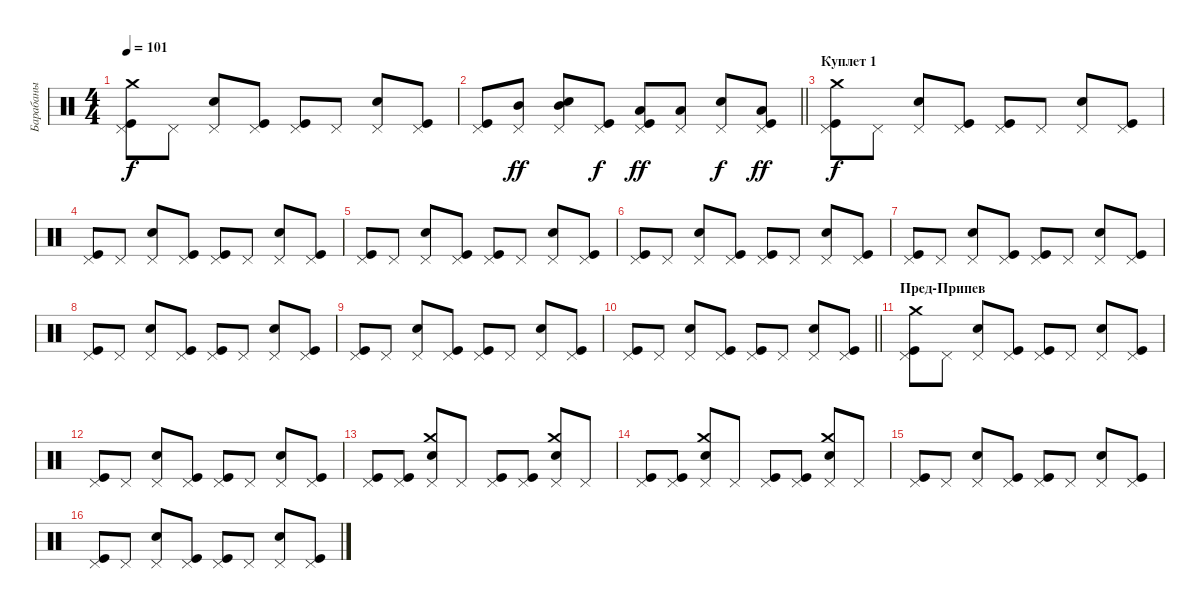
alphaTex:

\track ("Барабаны" "Барабаны") {instrument percussion}
\staff {score}
\articulation defaults
\ts (4 4)
\tempo 101
\clef neutral
\ks c
("Kick (hit)" "Pedal Hi-Hat (hit)" "Crash medium (hit)").8{dy f} "Pedal Hi-Hat (hit)".8 ("Snare (hit) 2" "Pedal Hi-Hat (hit)").8 ("Kick (hit)" "Pedal Hi-Hat (hit)").8 ("Kick (hit)" "Pedal Hi-Hat (hit)").8 "Pedal Hi-Hat (hit)".8 ("Snare (hit) 2" "Pedal Hi-Hat (hit)").8 ("Kick (hit)" "Pedal Hi-Hat (hit)").8 |
\barLineRight lightlight
("Kick (hit)" "Pedal Hi-Hat (hit)").8 ("Pedal Hi-Hat (hit)" "Mid Tom (hit)").8{dy ff} ("Snare (hit) 2" "Pedal Hi-Hat (hit)" "Mid Tom (hit)").8 ("Kick (hit)" "Pedal Hi-Hat (hit)").8{dy f} ("Kick (hit)" "Pedal Hi-Hat (hit)" "Low Tom (hit)").8{dy ff} ("Pedal Hi-Hat (hit)" "Low Tom (hit)").8 ("Snare (hit) 2" "Pedal Hi-Hat (hit)").8{dy f} ("Kick (hit)" "Pedal Hi-Hat (hit)" "Low Tom (hit)").8{dy ff} |
\section ("" "Куплет 1")
("Kick (hit)" "Pedal Hi-Hat (hit)" "Crash medium (hit)").8{dy f} "Pedal Hi-Hat (hit)".8 ("Snare (hit) 2" "Pedal Hi-Hat (hit)").8 ("Kick (hit)" "Pedal Hi-Hat (hit)").8 ("Kick (hit)" "Pedal Hi-Hat (hit)").8 "Pedal Hi-Hat (hit)".8 ("Snare (hit) 2" "Pedal Hi-Hat (hit)").8 ("Kick (hit)" "Pedal Hi-Hat (hit)").8 |
("Kick (hit)" "Pedal Hi-Hat (hit)").8 "Pedal Hi-Hat (hit)".8 ("Snare (hit) 2" "Pedal Hi-Hat (hit)").8 ("Kick (hit)" "Pedal Hi-Hat (hit)").8 ("Kick (hit)" "Pedal Hi-Hat (hit)").8 "Pedal Hi-Hat (hit)".8 ("Snare (hit) 2" "Pedal Hi-Hat (hit)").8 ("Kick (hit)" "Pedal Hi-Hat (hit)").8 |
("Kick (hit)" "Pedal Hi-Hat (hit)").8 "Pedal Hi-Hat (hit)".8 ("Snare (hit) 2" "Pedal Hi-Hat (hit)").8 ("Kick (hit)" "Pedal Hi-Hat (hit)").8 ("Kick (hit)" "Pedal Hi-Hat (hit)").8 "Pedal Hi-Hat (hit)".8 ("Snare (hit) 2" "Pedal Hi-Hat (hit)").8 ("Kick (hit)" "Pedal Hi-Hat (hit)").8 |
("Kick (hit)" "Pedal Hi-Hat (hit)").8 "Pedal Hi-Hat (hit)".8 ("Snare (hit) 2" "Pedal Hi-Hat (hit)").8 ("Kick (hit)" "Pedal Hi-Hat (hit)").8 ("Kick (hit)" "Pedal Hi-Hat (hit)").8 "Pedal Hi-Hat (hit)".8 ("Snare (hit) 2" "Pedal Hi-Hat (hit)").8 ("Kick (hit)" "Pedal Hi-Hat (hit)").8 |
("Kick (hit)" "Pedal Hi-Hat (hit)").8 "Pedal Hi-Hat (hit)".8 ("Snare (hit) 2" "Pedal Hi-Hat (hit)").8 ("Kick (hit)" "Pedal Hi-Hat (hit)").8 ("Kick (hit)" "Pedal Hi-Hat (hit)").8 "Pedal Hi-Hat (hit)".8 ("Snare (hit) 2" "Pedal Hi-Hat (hit)").8 ("Kick (hit)" "Pedal Hi-Hat (hit)").8 |
("Kick (hit)" "Pedal Hi-Hat (hit)").8 "Pedal Hi-Hat (hit)".8 ("Snare (hit) 2" "Pedal Hi-Hat (hit)").8 ("Kick (hit)" "Pedal Hi-Hat (hit)").8 ("Kick (hit)" "Pedal Hi-Hat (hit)").8 "Pedal Hi-Hat (hit)".8 ("Snare (hit) 2" "Pedal Hi-Hat (hit)").8 ("Kick (hit)" "Pedal Hi-Hat (hit)").8 |
("Kick (hit)" "Pedal Hi-Hat (hit)").8 "Pedal Hi-Hat (hit)".8 ("Snare (hit) 2" "Pedal Hi-Hat (hit)").8 ("Kick (hit)" "Pedal Hi-Hat (hit)").8 ("Kick (hit)" "Pedal Hi-Hat (hit)").8 "Pedal Hi-Hat (hit)".8 ("Snare (hit) 2" "Pedal Hi-Hat (hit)").8 ("Kick (hit)" "Pedal Hi-Hat (hit)").8 |
\barLineRight lightlight
("Kick (hit)" "Pedal Hi-Hat (hit)").8 "Pedal Hi-Hat (hit)".8 ("Snare (hit) 2" "Pedal Hi-Hat (hit)").8 ("Kick (hit)" "Pedal Hi-Hat (hit)").8 ("Kick (hit)" "Pedal Hi-Hat (hit)").8 "Pedal Hi-Hat (hit)".8 ("Snare (hit) 2" "Pedal Hi-Hat (hit)").8 ("Kick (hit)" "Pedal Hi-Hat (hit)").8 |
\section ("" "Пред-Припев")
("Kick (hit)" "Pedal Hi-Hat (hit)" "Crash medium (hit)").8 "Pedal Hi-Hat (hit)".8 ("Snare (hit) 2" "Pedal Hi-Hat (hit)").8 ("Kick (hit)" "Pedal Hi-Hat (hit)").8 ("Kick (hit)" "Pedal Hi-Hat (hit)").8 "Pedal Hi-Hat (hit)".8 ("Snare (hit) 2" "Pedal Hi-Hat (hit)").8 ("Kick (hit)" "Pedal Hi-Hat (hit)").8 |
("Kick (hit)" "Pedal Hi-Hat (hit)").8 "Pedal Hi-Hat (hit)".8 ("Snare (hit) 2" "Pedal Hi-Hat (hit)").8 ("Kick (hit)" "Pedal Hi-Hat (hit)").8 ("Kick (hit)" "Pedal Hi-Hat (hit)").8 "Pedal Hi-Hat (hit)".8 ("Snare (hit) 2" "Pedal Hi-Hat (hit)").8 ("Kick (hit)" "Pedal Hi-Hat (hit)").8 |
("Kick (hit)" "Pedal Hi-Hat (hit)").8 ("Kick (hit)" "Pedal Hi-Hat (hit)").8 ("Snare (hit) 2" "Pedal Hi-Hat (hit)" "Crash medium (hit)").8 "Pedal Hi-Hat (hit)".8 ("Kick (hit)" "Pedal Hi-Hat (hit)").8 ("Kick (hit)" "Pedal Hi-Hat (hit)").8 ("Snare (hit) 2" "Pedal Hi-Hat (hit)" "Crash medium (hit)").8 "Pedal Hi-Hat (hit)".8 |
("Kick (hit)" "Pedal Hi-Hat (hit)").8 ("Kick (hit)" "Pedal Hi-Hat (hit)").8 ("Snare (hit) 2" "Pedal Hi-Hat (hit)" "Crash medium (hit)").8 "Pedal Hi-Hat (hit)".8 ("Kick (hit)" "Pedal Hi-Hat (hit)").8 ("Kick (hit)" "Pedal Hi-Hat (hit)").8 ("Snare (hit) 2" "Pedal Hi-Hat (hit)" "Crash medium (hit)").8 "Pedal Hi-Hat (hit)".8 |
("Kick (hit)" "Pedal Hi-Hat (hit)").8 "Pedal Hi-Hat (hit)".8 ("Snare (hit) 2" "Pedal Hi-Hat (hit)").8 ("Kick (hit)" "Pedal Hi-Hat (hit)").8 ("Kick (hit)" "Pedal Hi-Hat (hit)").8 "Pedal Hi-Hat (hit)".8 ("Snare (hit) 2" "Pedal Hi-Hat (hit)").8 ("Kick (hit)" "Pedal Hi-Hat (hit)").8 |
("Kick (hit)" "Pedal Hi-Hat (hit)").8 "Pedal Hi-Hat (hit)".8 ("Snare (hit) 2" "Pedal Hi-Hat (hit)").8 ("Kick (hit)" "Pedal Hi-Hat (hit)").8 ("Kick (hit)" "Pedal Hi-Hat (hit)").8 "Pedal Hi-Hat (hit)".8 ("Snare (hit) 2" "Pedal Hi-Hat (hit)").8 ("Kick (hit)" "Pedal Hi-Hat (hit)").8
